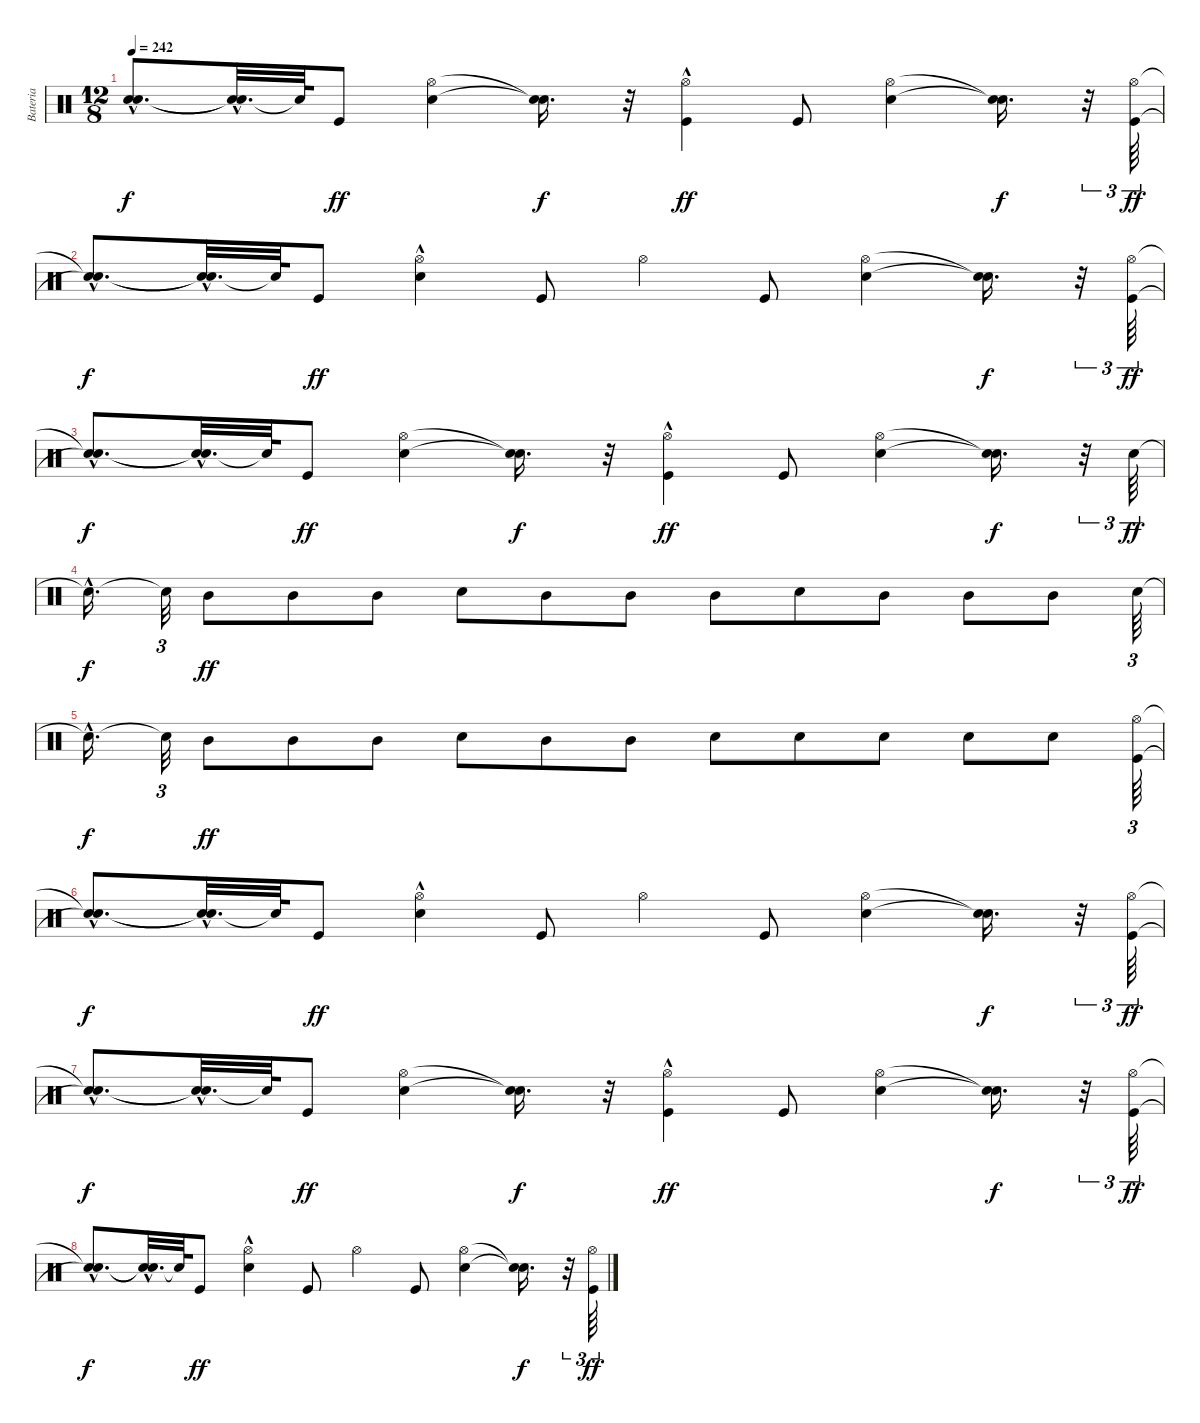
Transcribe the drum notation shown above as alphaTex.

\track ("Bateria" "Bateria") {instrument percussion}
\staff {score}
\articulation defaults
\ts (12 8)
\tempo 242
\clef neutral
\ks c
("Snare (hit)"{hac t} "Snare (hit)"{hac t}).8{d dy f} ("Snare (hit)"{t} "Snare (hit)"{hac t}).32{d} "Snare (hit)"{t}.64 "Kick (hit)".8{dy ff} ("Snare (hit) 2" "Hi-Hat (open)").4 ("Snare (hit)"{t} "Snare (hit)"{t}).16{d dy f} r.32 ("Kick (hit)"{hac} "Hi-Hat (open)").4{dy ff} "Kick (hit)".8 ("Snare (hit) 2" "Hi-Hat (open)").4 ("Snare (hit)"{t} "Snare (hit)"{t}).16{d dy f} r.32{tu (3 2)} ("Kick (hit)" "Hi-Hat (open)").64{tu (3 2) dy ff} |
("Snare (hit)"{hac t} "Snare (hit)"{hac t}).8{d dy f} ("Snare (hit)"{t} "Snare (hit)"{hac t}).32{d} "Snare (hit)"{t}.64 "Kick (hit)".8{dy ff} ("Snare (hit) 2"{hac} "Hi-Hat (open)").4 "Kick (hit)".8 "Hi-Hat (open)".4 "Kick (hit)".8 ("Snare (hit) 2" "Hi-Hat (open)").4 ("Snare (hit)"{t} "Snare (hit)"{t}).16{d dy f} r.32{tu (3 2)} ("Kick (hit)" "Hi-Hat (open)").64{tu (3 2) dy ff} |
("Snare (hit)"{hac t} "Snare (hit)"{hac t}).8{d dy f} ("Snare (hit)"{t} "Snare (hit)"{hac t}).32{d} "Snare (hit)"{t}.64 "Kick (hit)".8{dy ff} ("Snare (hit) 2" "Hi-Hat (open)").4 ("Snare (hit)"{t} "Snare (hit)"{t}).16{d dy f} r.32 ("Kick (hit)"{hac} "Hi-Hat (open)").4{dy ff} "Kick (hit)".8 ("Snare (hit) 2" "Hi-Hat (open)").4 ("Snare (hit)"{t} "Snare (hit)"{t}).16{d dy f} r.32{tu (3 2)} "Snare (hit) 2".64{tu (3 2) dy ff} |
"Snare (hit)"{hac t}.16{d dy f} "Snare (hit)"{t}.32{tu (3 2)} "Mid Tom (hit)".8{dy ff} "Mid Tom (hit)".8 "Mid Tom (hit)".8 "Snare (hit) 2".8 "Mid Tom (hit)".8 "Mid Tom (hit)".8 "Mid Tom (hit)".8 "Snare (hit) 2".8 "Mid Tom (hit)".8 "Mid Tom (hit)".8 "Mid Tom (hit)".8 "Snare (hit) 2".64{tu (3 2)} |
"Snare (hit)"{hac t}.16{d dy f} "Snare (hit)"{t}.32{tu (3 2)} "Mid Tom (hit)".8{dy ff} "Mid Tom (hit)".8 "Mid Tom (hit)".8 "Snare (hit) 2".8 "Mid Tom (hit)".8 "Mid Tom (hit)".8 "Snare (hit) 2".8 "Snare (hit) 2".8 "Snare (hit) 2".8 "Snare (hit) 2".8 "Snare (hit) 2".8 ("Kick (hit)" "Hi-Hat (open)").64{tu (3 2)} |
("Snare (hit)"{hac t} "Snare (hit)"{hac t}).8{d dy f} ("Snare (hit)"{t} "Snare (hit)"{hac t}).32{d} "Snare (hit)"{t}.64 "Kick (hit)".8{dy ff} ("Snare (hit) 2"{hac} "Hi-Hat (open)").4 "Kick (hit)".8 "Hi-Hat (open)".4 "Kick (hit)".8 ("Snare (hit) 2" "Hi-Hat (open)").4 ("Snare (hit)"{t} "Snare (hit)"{t}).16{d dy f} r.32{tu (3 2)} ("Kick (hit)" "Hi-Hat (open)").64{tu (3 2) dy ff} |
("Snare (hit)"{hac t} "Snare (hit)"{hac t}).8{d dy f} ("Snare (hit)"{t} "Snare (hit)"{hac t}).32{d} "Snare (hit)"{t}.64 "Kick (hit)".8{dy ff} ("Snare (hit) 2" "Hi-Hat (open)").4 ("Snare (hit)"{t} "Snare (hit)"{t}).16{d dy f} r.32 ("Kick (hit)"{hac} "Hi-Hat (open)").4{dy ff} "Kick (hit)".8 ("Snare (hit) 2" "Hi-Hat (open)").4 ("Snare (hit)"{t} "Snare (hit)"{t}).16{d dy f} r.32{tu (3 2)} ("Kick (hit)" "Hi-Hat (open)").64{tu (3 2) dy ff} |
("Snare (hit)"{hac t} "Snare (hit)"{hac t}).8{d dy f} ("Snare (hit)"{t} "Snare (hit)"{hac t}).32{d} "Snare (hit)"{t}.64 "Kick (hit)".8{dy ff} ("Snare (hit) 2"{hac} "Hi-Hat (open)").4 "Kick (hit)".8 "Hi-Hat (open)".4 "Kick (hit)".8 ("Snare (hit) 2" "Hi-Hat (open)").4 ("Snare (hit)"{t} "Snare (hit)"{t}).16{d dy f} r.32{tu (3 2)} ("Kick (hit)" "Hi-Hat (open)").64{tu (3 2) dy ff}
